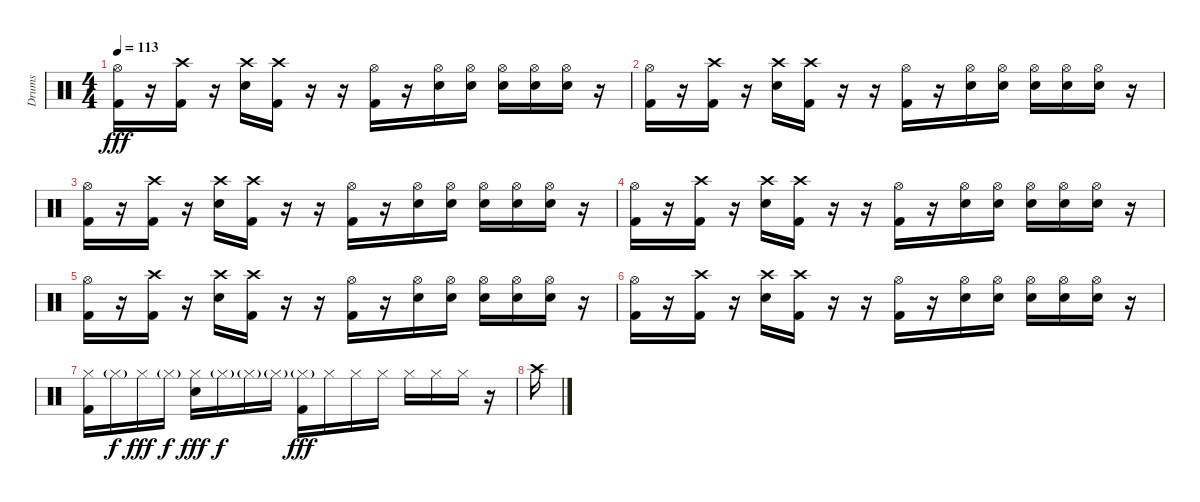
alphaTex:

\track ("Drums" "Drums") {instrument percussion}
\staff {score}
\articulation defaults
\ts (4 4)
\tempo 113
\clef neutral
\ks c
("Hi-Hat (open)" "Kick (hit) 2").16{dy fff} r.16 ("Crash high (hit)" "Kick (hit) 2").16 r.16 ("Crash high (hit)" "Electric Snare (hit)").16 ("Crash high (hit)" "Kick (hit) 2").16 r.16 r.16 ("Hi-Hat (open)" "Kick (hit) 2").16 r.16 ("Hi-Hat (open)" "Electric Snare (hit)").16 ("Hi-Hat (open)" "Electric Snare (hit)").16 ("Hi-Hat (open)" "Electric Snare (hit)").16 ("Hi-Hat (open)" "Electric Snare (hit)").16 ("Hi-Hat (open)" "Electric Snare (hit)").16 r.16 |
("Hi-Hat (open)" "Kick (hit) 2").16 r.16 ("Crash high (hit)" "Kick (hit) 2").16 r.16 ("Crash high (hit)" "Electric Snare (hit)").16 ("Crash high (hit)" "Kick (hit) 2").16 r.16 r.16 ("Hi-Hat (open)" "Kick (hit) 2").16 r.16 ("Hi-Hat (open)" "Electric Snare (hit)").16 ("Hi-Hat (open)" "Electric Snare (hit)").16 ("Hi-Hat (open)" "Electric Snare (hit)").16 ("Hi-Hat (open)" "Electric Snare (hit)").16 ("Hi-Hat (open)" "Electric Snare (hit)").16 r.16 |
("Hi-Hat (open)" "Kick (hit) 2").16 r.16 ("Crash high (hit)" "Kick (hit) 2").16 r.16 ("Crash high (hit)" "Electric Snare (hit)").16 ("Crash high (hit)" "Kick (hit) 2").16 r.16 r.16 ("Hi-Hat (open)" "Kick (hit) 2").16 r.16 ("Hi-Hat (open)" "Electric Snare (hit)").16 ("Hi-Hat (open)" "Electric Snare (hit)").16 ("Hi-Hat (open)" "Electric Snare (hit)").16 ("Hi-Hat (open)" "Electric Snare (hit)").16 ("Hi-Hat (open)" "Electric Snare (hit)").16 r.16 |
("Hi-Hat (open)" "Kick (hit) 2").16 r.16 ("Crash high (hit)" "Kick (hit) 2").16 r.16 ("Crash high (hit)" "Electric Snare (hit)").16 ("Crash high (hit)" "Kick (hit) 2").16 r.16 r.16 ("Hi-Hat (open)" "Kick (hit) 2").16 r.16 ("Hi-Hat (open)" "Electric Snare (hit)").16 ("Hi-Hat (open)" "Electric Snare (hit)").16 ("Hi-Hat (open)" "Electric Snare (hit)").16 ("Hi-Hat (open)" "Electric Snare (hit)").16 ("Hi-Hat (open)" "Electric Snare (hit)").16 r.16 |
("Hi-Hat (open)" "Kick (hit) 2").16 r.16 ("Crash high (hit)" "Kick (hit) 2").16 r.16 ("Crash high (hit)" "Electric Snare (hit)").16 ("Crash high (hit)" "Kick (hit) 2").16 r.16 r.16 ("Hi-Hat (open)" "Kick (hit) 2").16 r.16 ("Hi-Hat (open)" "Electric Snare (hit)").16 ("Hi-Hat (open)" "Electric Snare (hit)").16 ("Hi-Hat (open)" "Electric Snare (hit)").16 ("Hi-Hat (open)" "Electric Snare (hit)").16 ("Hi-Hat (open)" "Electric Snare (hit)").16 r.16 |
("Hi-Hat (open)" "Kick (hit) 2").16 r.16 ("Crash high (hit)" "Kick (hit) 2").16 r.16 ("Crash high (hit)" "Electric Snare (hit)").16 ("Crash high (hit)" "Kick (hit) 2").16 r.16 r.16 ("Hi-Hat (open)" "Kick (hit) 2").16 r.16 ("Hi-Hat (open)" "Electric Snare (hit)").16 ("Hi-Hat (open)" "Electric Snare (hit)").16 ("Hi-Hat (open)" "Electric Snare (hit)").16 ("Hi-Hat (open)" "Electric Snare (hit)").16 ("Hi-Hat (open)" "Electric Snare (hit)").16 r.16 |
("Hi-Hat (closed)" "Kick (hit) 2").16 "Hi-Hat (closed)"{g}.16{dy f} "Hi-Hat (closed)".16{dy fff} "Hi-Hat (closed)"{g}.16{dy f} ("Hi-Hat (closed)" "Electric Snare (hit)").16{dy fff} "Hi-Hat (closed)"{g}.16{dy f} "Hi-Hat (closed)"{g}.16 "Hi-Hat (closed)"{g}.16 ("Hi-Hat (closed)"{g} "Kick (hit) 2").16{dy fff} "Hi-Hat (closed)".16 "Hi-Hat (closed)".16 "Hi-Hat (closed)".16 "Hi-Hat (closed)".16 "Hi-Hat (closed)".16 "Hi-Hat (closed)".16 r.16 |
"Crash high (hit)".16
